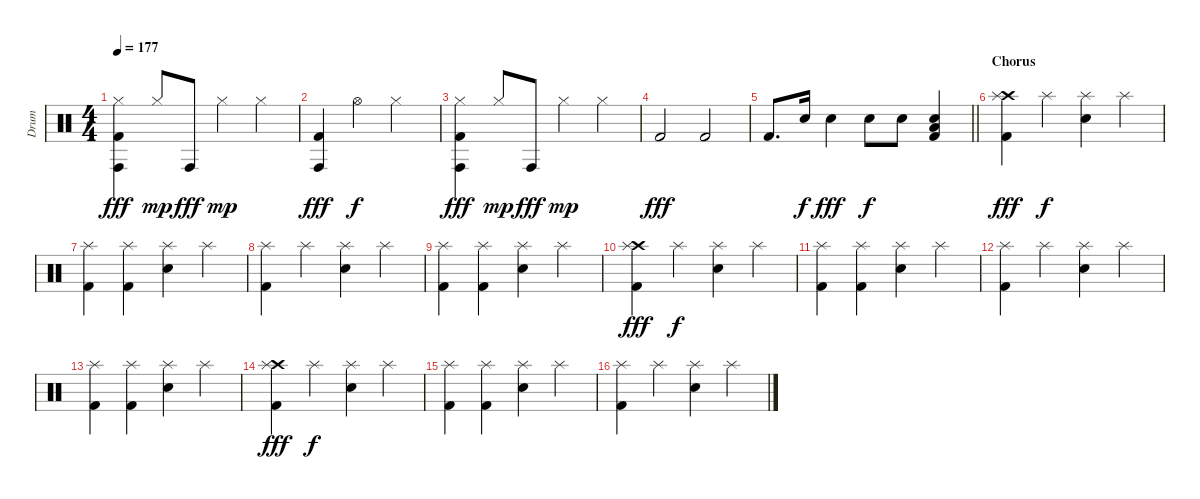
\track ("Drum" "Drum") {instrument percussion}
\staff {score}
\articulation defaults
\ts (4 4)
\tempo 177
\clef neutral
\ks c
("Hi-Hat (closed)" "Conga high (hit)" "Kick (hit) 2").4{dy fff} "Hi-Hat (closed)".8{dy mp} "Conga high (hit)".8{dy fff} "Hi-Hat (closed)".4{dy mp} "Hi-Hat (closed)".4 |
("Conga high (hit)" "Kick (hit) 2").4{dy fff} "Hi-Hat (open)".4{dy f} "Hi-Hat (closed)".2 |
("Hi-Hat (closed)" "Conga high (hit)" "Kick (hit) 2").4{dy fff} "Hi-Hat (closed)".8{dy mp} "Conga high (hit)".8{dy fff} "Hi-Hat (closed)".4{dy mp} "Hi-Hat (closed)".4 |
"Kick (hit) 2".2{dy fff} "Kick (hit) 2".2 |
\barLineRight lightlight "Kick (hit) 2".8{d} "Snare (hit) 2".16{dy f} "Snare (hit) 2".4{dy fff} "Snare (hit) 2".8{dy f} "Snare (hit) 2".8
("Snare (hit) 2" "Low Floor Tom (hit)" "Kick (hit) 2").4 |
\section ("" "Chorus")
("Crash high (hit)" "Splash (hit)" "Kick (hit) 2").4{dy fff} "Splash (hit)".4{dy f} ("Snare (hit) 2" "Splash (hit)").4 "Splash (hit)".4 |
("Splash (hit)" "Kick (hit) 2").4 ("Splash (hit)" "Kick (hit) 2").4 ("Snare (hit) 2" "Splash (hit)").4 "Splash (hit)".4 |
("Splash (hit)" "Kick (hit) 2").4 "Splash (hit)".4 ("Snare (hit) 2" "Splash (hit)").4 "Splash (hit)".4 |
("Splash (hit)" "Kick (hit) 2").4 ("Splash (hit)" "Kick (hit) 2").4 ("Snare (hit) 2" "Splash (hit)").4 "Splash (hit)".4 |
("Crash high (hit)" "Splash (hit)" "Kick (hit) 2").4{dy fff} "Splash (hit)".4{dy f} ("Snare (hit) 2" "Splash (hit)").4 "Splash (hit)".4 |
("Splash (hit)" "Kick (hit) 2").4 ("Splash (hit)" "Kick (hit) 2").4 ("Snare (hit) 2" "Splash (hit)").4 "Splash (hit)".4 |
("Splash (hit)" "Kick (hit) 2").4 "Splash (hit)".4 ("Snare (hit) 2" "Splash (hit)").4 "Splash (hit)".4 |
("Splash (hit)" "Kick (hit) 2").4 ("Splash (hit)" "Kick (hit) 2").4 ("Snare (hit) 2" "Splash (hit)").4 "Splash (hit)".4 |
("Crash high (hit)" "Splash (hit)" "Kick (hit) 2").4{dy fff} "Splash (hit)".4{dy f} ("Snare (hit) 2" "Splash (hit)").4 "Splash (hit)".4 |
("Splash (hit)" "Kick (hit) 2").4 ("Splash (hit)" "Kick (hit) 2").4 ("Snare (hit) 2" "Splash (hit)").4 "Splash (hit)".4 |
("Splash (hit)" "Kick (hit) 2").4 "Splash (hit)".4 ("Snare (hit) 2" "Splash (hit)").4 "Splash (hit)".4
